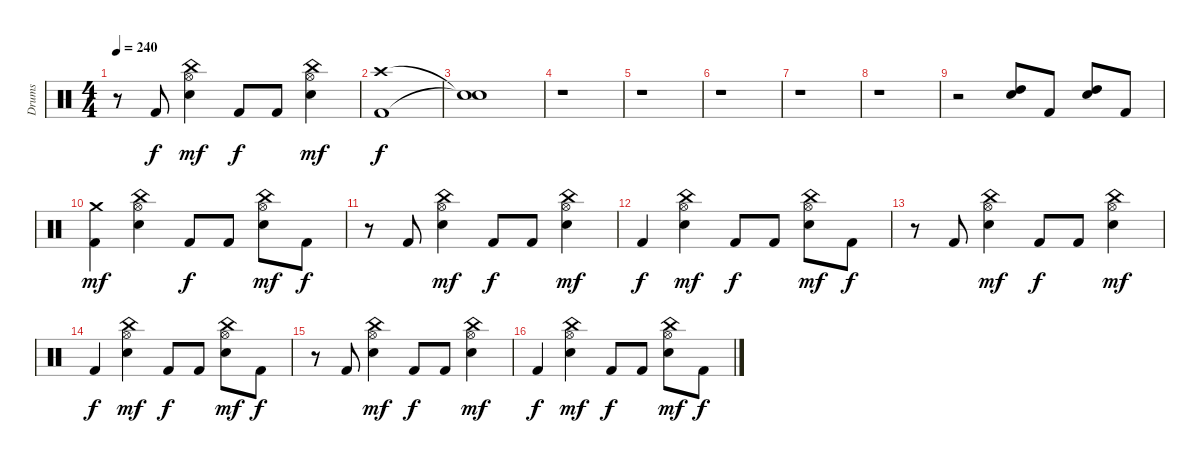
\track ("Drums" "Drums") {instrument percussion}
\staff {score}
\articulation defaults
\ts (4 4)
\tempo 240
\clef neutral
\ks c
r.8{dy f} "Kick (hit) 2".8 ("Electric Snare (hit)" "China (hit)" "Hi-Hat (open)").4{dy mf} "Kick (hit) 2".8{dy f} "Kick (hit) 2".8 ("Electric Snare (hit)" "China (hit)" "Hi-Hat (open)").4{dy mf} |
("Crash high (hit)" "Kick (hit) 2").1{dy f} |
("Snare (hit)"{t} "Snare (hit)"{t}).1 |
r.1 |
r.1 |
r.1 |
r.1 |
r.1 |
r.2 ("Electric Snare (hit)" "High Tom (hit)").8 "Kick (hit) 2".8 ("Electric Snare (hit)" "High Tom (hit)").8 "Kick (hit) 2".8 |
("Kick (hit) 2" "Crash medium (hit)").4{dy mf} ("Electric Snare (hit)" "China (hit)" "Hi-Hat (open)").4 "Kick (hit) 2".8{dy f} "Kick (hit) 2".8 ("Electric Snare (hit)" "China (hit)" "Hi-Hat (open)").8{dy mf} "Kick (hit) 2".8{dy f} |
r.8 "Kick (hit) 2".8 ("Electric Snare (hit)" "China (hit)" "Hi-Hat (open)").4{dy mf} "Kick (hit) 2".8{dy f} "Kick (hit) 2".8 ("Electric Snare (hit)" "China (hit)" "Hi-Hat (open)").4{dy mf} |
"Kick (hit) 2".4{dy f} ("Electric Snare (hit)" "China (hit)" "Hi-Hat (open)").4{dy mf} "Kick (hit) 2".8{dy f} "Kick (hit) 2".8 ("Electric Snare (hit)" "China (hit)" "Hi-Hat (open)").8{dy mf} "Kick (hit) 2".8{dy f} |
r.8 "Kick (hit) 2".8 ("Electric Snare (hit)" "China (hit)" "Hi-Hat (open)").4{dy mf} "Kick (hit) 2".8{dy f} "Kick (hit) 2".8 ("Electric Snare (hit)" "China (hit)" "Hi-Hat (open)").4{dy mf} |
"Kick (hit) 2".4{dy f} ("Electric Snare (hit)" "China (hit)" "Hi-Hat (open)").4{dy mf} "Kick (hit) 2".8{dy f} "Kick (hit) 2".8 ("Electric Snare (hit)" "China (hit)" "Hi-Hat (open)").8{dy mf} "Kick (hit) 2".8{dy f} |
r.8 "Kick (hit) 2".8 ("Electric Snare (hit)" "China (hit)" "Hi-Hat (open)").4{dy mf} "Kick (hit) 2".8{dy f} "Kick (hit) 2".8 ("Electric Snare (hit)" "China (hit)" "Hi-Hat (open)").4{dy mf} |
"Kick (hit) 2".4{dy f} ("Electric Snare (hit)" "China (hit)" "Hi-Hat (open)").4{dy mf} "Kick (hit) 2".8{dy f} "Kick (hit) 2".8 ("Electric Snare (hit)" "China (hit)" "Hi-Hat (open)").8{dy mf} "Kick (hit) 2".8{dy f}
